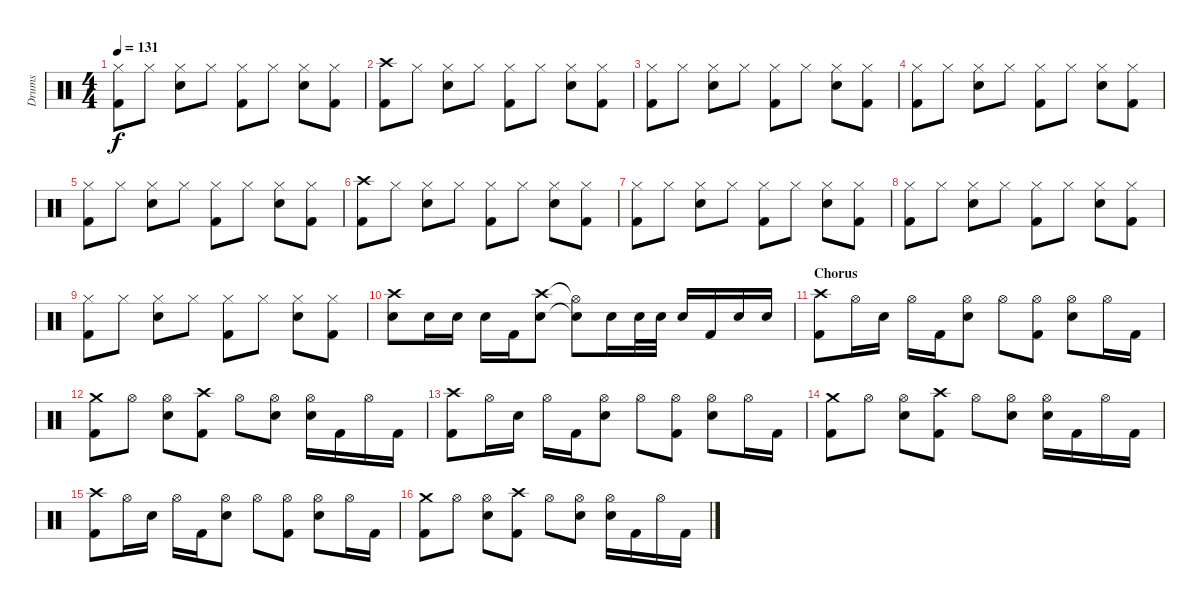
\track ("Drums" "Drums") {instrument percussion}
\staff {score}
\articulation defaults
\ts (4 4)
\tempo 131
\clef neutral
\ks c
("Hi-Hat (closed)" "Kick (hit) 2").8{dy f} "Hi-Hat (closed)".8 ("Hi-Hat (closed)" "Electric Snare (hit)").8 "Hi-Hat (closed)".8 ("Hi-Hat (closed)" "Kick (hit) 2").8 "Hi-Hat (closed)".8 ("Hi-Hat (closed)" "Electric Snare (hit)").8 ("Hi-Hat (closed)" "Kick (hit) 2").8 |
("Crash high (hit)" "Kick (hit) 2").8 "Hi-Hat (closed)".8 ("Hi-Hat (closed)" "Electric Snare (hit)").8 "Hi-Hat (closed)".8 ("Hi-Hat (closed)" "Kick (hit) 2").8 "Hi-Hat (closed)".8 ("Hi-Hat (closed)" "Electric Snare (hit)").8 ("Hi-Hat (closed)" "Kick (hit) 2").8 |
("Hi-Hat (closed)" "Kick (hit) 2").8 "Hi-Hat (closed)".8 ("Hi-Hat (closed)" "Electric Snare (hit)").8 "Hi-Hat (closed)".8 ("Hi-Hat (closed)" "Kick (hit) 2").8 "Hi-Hat (closed)".8 ("Hi-Hat (closed)" "Electric Snare (hit)").8 ("Hi-Hat (closed)" "Kick (hit) 2").8 |
("Hi-Hat (closed)" "Kick (hit) 2").8 "Hi-Hat (closed)".8 ("Hi-Hat (closed)" "Electric Snare (hit)").8 "Hi-Hat (closed)".8 ("Hi-Hat (closed)" "Kick (hit) 2").8 "Hi-Hat (closed)".8 ("Hi-Hat (closed)" "Electric Snare (hit)").8 ("Hi-Hat (closed)" "Kick (hit) 2").8 |
("Hi-Hat (closed)" "Kick (hit) 2").8 "Hi-Hat (closed)".8 ("Hi-Hat (closed)" "Electric Snare (hit)").8 "Hi-Hat (closed)".8 ("Hi-Hat (closed)" "Kick (hit) 2").8 "Hi-Hat (closed)".8 ("Hi-Hat (closed)" "Electric Snare (hit)").8 ("Hi-Hat (closed)" "Kick (hit) 2").8 |
("Crash high (hit)" "Kick (hit) 2").8 "Hi-Hat (closed)".8 ("Hi-Hat (closed)" "Electric Snare (hit)").8 "Hi-Hat (closed)".8 ("Hi-Hat (closed)" "Kick (hit) 2").8 "Hi-Hat (closed)".8 ("Hi-Hat (closed)" "Electric Snare (hit)").8 ("Hi-Hat (closed)" "Kick (hit) 2").8 |
("Hi-Hat (closed)" "Kick (hit) 2").8 "Hi-Hat (closed)".8 ("Hi-Hat (closed)" "Electric Snare (hit)").8 "Hi-Hat (closed)".8 ("Hi-Hat (closed)" "Kick (hit) 2").8 "Hi-Hat (closed)".8 ("Hi-Hat (closed)" "Electric Snare (hit)").8 ("Hi-Hat (closed)" "Kick (hit) 2").8 |
("Hi-Hat (closed)" "Kick (hit) 2").8 "Hi-Hat (closed)".8 ("Hi-Hat (closed)" "Electric Snare (hit)").8 "Hi-Hat (closed)".8 ("Hi-Hat (closed)" "Kick (hit) 2").8 "Hi-Hat (closed)".8 ("Hi-Hat (closed)" "Electric Snare (hit)").8 ("Hi-Hat (closed)" "Kick (hit) 2").8 |
("Hi-Hat (closed)" "Kick (hit) 2").8 "Hi-Hat (closed)".8 ("Hi-Hat (closed)" "Electric Snare (hit)").8 "Hi-Hat (closed)".8 ("Hi-Hat (closed)" "Kick (hit) 2").8 "Hi-Hat (closed)".8 ("Hi-Hat (closed)" "Electric Snare (hit)").8 ("Hi-Hat (closed)" "Kick (hit) 2").8 |
\section ("" "")
("Crash high (hit)" "Electric Snare (hit)").8 "Electric Snare (hit)".16 "Electric Snare (hit)".16 "Electric Snare (hit)".16 "Kick (hit) 2".16 ("Crash high (hit)" "Electric Snare (hit)").8 ("Hi-Hat (open)"{t} "Snare (hit)"{t}).8 "Electric Snare (hit)".16 "Electric Snare (hit)".32 "Electric Snare (hit)".32 "Electric Snare (hit)".16 "Kick (hit) 2".16 "Electric Snare (hit)".16 "Electric Snare (hit)".16 |
\section ("" "Chorus")
("Crash high (hit)" "Kick (hit) 2").8 "Hi-Hat (open)".16 "Electric Snare (hit)".16 "Hi-Hat (open)".16 "Kick (hit) 2".16 ("Hi-Hat (open)" "Electric Snare (hit)").8 "Hi-Hat (open)".8 ("Hi-Hat (open)" "Kick (hit) 2").8 ("Hi-Hat (open)" "Electric Snare (hit)").8 "Hi-Hat (open)".16 "Kick (hit) 2".16 |
("Crash medium (hit)" "Kick (hit) 2").8 "Hi-Hat (open)".8 ("Hi-Hat (open)" "Electric Snare (hit)").8 ("Crash high (hit)" "Kick (hit) 2").8 "Hi-Hat (open)".8 ("Hi-Hat (open)" "Electric Snare (hit)").8 ("Hi-Hat (open)" "Electric Snare (hit)").16 "Kick (hit) 2".16 "Hi-Hat (open)".16 "Kick (hit) 2".16 |
("Crash high (hit)" "Kick (hit) 2").8 "Hi-Hat (open)".16 "Electric Snare (hit)".16 "Hi-Hat (open)".16 "Kick (hit) 2".16 ("Hi-Hat (open)" "Electric Snare (hit)").8 "Hi-Hat (open)".8 ("Hi-Hat (open)" "Kick (hit) 2").8 ("Hi-Hat (open)" "Electric Snare (hit)").8 "Hi-Hat (open)".16 "Kick (hit) 2".16 |
("Crash medium (hit)" "Kick (hit) 2").8 "Hi-Hat (open)".8 ("Hi-Hat (open)" "Electric Snare (hit)").8 ("Crash high (hit)" "Kick (hit) 2").8 "Hi-Hat (open)".8 ("Hi-Hat (open)" "Electric Snare (hit)").8 ("Hi-Hat (open)" "Electric Snare (hit)").16 "Kick (hit) 2".16 "Hi-Hat (open)".16 "Kick (hit) 2".16 |
("Crash high (hit)" "Kick (hit) 2").8 "Hi-Hat (open)".16 "Electric Snare (hit)".16 "Hi-Hat (open)".16 "Kick (hit) 2".16 ("Hi-Hat (open)" "Electric Snare (hit)").8 "Hi-Hat (open)".8 ("Hi-Hat (open)" "Kick (hit) 2").8 ("Hi-Hat (open)" "Electric Snare (hit)").8 "Hi-Hat (open)".16 "Kick (hit) 2".16 |
("Crash medium (hit)" "Kick (hit) 2").8 "Hi-Hat (open)".8 ("Hi-Hat (open)" "Electric Snare (hit)").8 ("Crash high (hit)" "Kick (hit) 2").8 "Hi-Hat (open)".8 ("Hi-Hat (open)" "Electric Snare (hit)").8 ("Hi-Hat (open)" "Electric Snare (hit)").16 "Kick (hit) 2".16 "Hi-Hat (open)".16 "Kick (hit) 2".16
